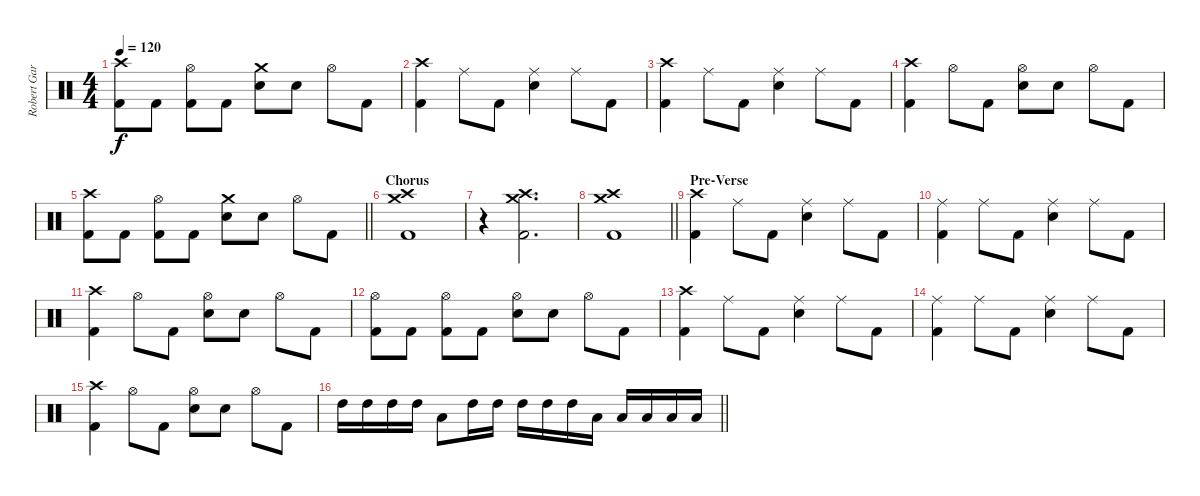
\track ("Robert Garven" "Robert Gar") {instrument percussion}
\staff {score}
\articulation defaults
\ts (4 4)
\tempo 120
\clef neutral
\ks c
("Crash high (hit)" "Kick (hit) 2").8{dy f} "Kick (hit) 2".8 ("Hi-Hat (open)" "Kick (hit) 2").8 "Kick (hit) 2".8 ("Crash medium (hit)" "Electric Snare (hit)").8 "Electric Snare (hit)".8 "Hi-Hat (open)".8 "Kick (hit) 2".8 |
("Crash high (hit)" "Kick (hit) 2").4 "Ride (middle)".8 "Kick (hit) 2".8 ("Ride (middle)" "Electric Snare (hit)").4 "Ride (middle)".8 "Kick (hit) 2".8 |
("Crash high (hit)" "Kick (hit) 2").4 "Ride (middle)".8 "Kick (hit) 2".8 ("Ride (middle)" "Electric Snare (hit)").4 "Ride (middle)".8 "Kick (hit) 2".8 |
("Crash high (hit)" "Kick (hit) 2").4 "Hi-Hat (open)".8 "Kick (hit) 2".8 ("Hi-Hat (open)" "Electric Snare (hit)").8 "Electric Snare (hit)".8 "Hi-Hat (open)".8 "Kick (hit) 2".8 |
\barLineRight lightlight
("Crash high (hit)" "Kick (hit) 2").8 "Kick (hit) 2".8 ("Hi-Hat (open)" "Kick (hit) 2").8 "Kick (hit) 2".8 ("Crash medium (hit)" "Electric Snare (hit)").8 "Electric Snare (hit)".8 "Hi-Hat (open)".8 "Kick (hit) 2".8 |
\section ("" "Chorus")
("Crash high (hit)" "Crash medium (hit)" "Kick (hit) 2").1 |
r.4 ("Crash high (hit)" "Crash medium (hit)" "Kick (hit) 2").2{d} |
\barLineRight lightlight
("Crash high (hit)" "Crash medium (hit)" "Kick (hit) 2").1 |
\section ("" "Pre-Verse")
("Crash high (hit)" "Kick (hit) 2").4 "Ride (middle)".8 "Kick (hit) 2".8 ("Ride (middle)" "Electric Snare (hit)").4 "Ride (middle)".8 "Kick (hit) 2".8 |
("Ride (middle)" "Kick (hit) 2").4 "Ride (middle)".8 "Kick (hit) 2".8 ("Ride (middle)" "Electric Snare (hit)").4 "Ride (middle)".8 "Kick (hit) 2".8 |
("Crash high (hit)" "Kick (hit) 2").4 "Hi-Hat (open)".8 "Kick (hit) 2".8 ("Hi-Hat (open)" "Electric Snare (hit)").8 "Electric Snare (hit)".8 "Hi-Hat (open)".8 "Kick (hit) 2".8 |
("Hi-Hat (open)" "Kick (hit) 2").8 "Kick (hit) 2".8 ("Hi-Hat (open)" "Kick (hit) 2").8 "Kick (hit) 2".8 ("Hi-Hat (open)" "Electric Snare (hit)").8 "Electric Snare (hit)".8 "Hi-Hat (open)".8 "Kick (hit) 2".8 |
("Crash high (hit)" "Kick (hit) 2").4 "Ride (middle)".8 "Kick (hit) 2".8 ("Ride (middle)" "Electric Snare (hit)").4 "Ride (middle)".8 "Kick (hit) 2".8 |
("Ride (middle)" "Kick (hit) 2").4 "Ride (middle)".8 "Kick (hit) 2".8 ("Ride (middle)" "Electric Snare (hit)").4 "Ride (middle)".8 "Kick (hit) 2".8 |
("Crash high (hit)" "Kick (hit) 2").4 "Hi-Hat (open)".8 "Kick (hit) 2".8 ("Hi-Hat (open)" "Electric Snare (hit)").8 "Electric Snare (hit)".8 "Hi-Hat (open)".8 "Kick (hit) 2".8 |
\barLineRight lightlight "High Tom (hit)".16 "High Tom (hit)".16 "High Tom (hit)".16 "High Tom (hit)".16 "Low Tom (hit)".8 "High Tom (hit)".16 "High Tom (hit)".16 "High Tom (hit)".16 "High Tom (hit)".16 "High Tom (hit)".16 "Low Tom (hit)".16 "Low Tom (hit)".16 "Low Tom (hit)".16 "Low Tom (hit)".16 "Low Tom (hit)".16
